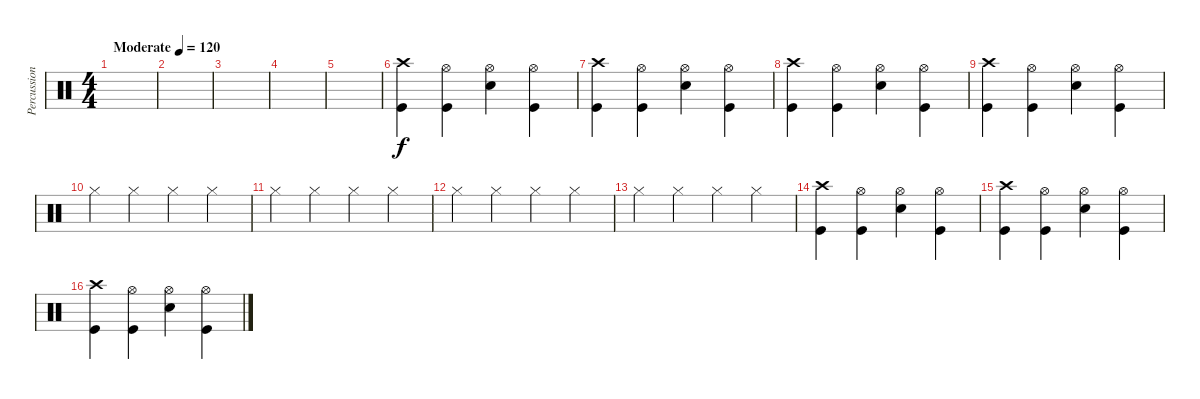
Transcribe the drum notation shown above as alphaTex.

\track ("Percussion" "Percussion") {instrument percussion}
\staff {score}
\articulation defaults
\ts (4 4)
\tempo (120 "Moderate")
\clef neutral
\ks c
|
|
|
|
|
("Crash high (hit)" "Kick (hit)").4 ("Hi-Hat (open)" "Kick (hit)").4 ("Hi-Hat (open)" "Snare (hit) 2").4 ("Hi-Hat (open)" "Kick (hit)").4 |
("Crash high (hit)" "Kick (hit)").4 ("Hi-Hat (open)" "Kick (hit)").4 ("Hi-Hat (open)" "Snare (hit) 2").4 ("Hi-Hat (open)" "Kick (hit)").4 |
("Crash high (hit)" "Kick (hit)").4 ("Hi-Hat (open)" "Kick (hit)").4 ("Hi-Hat (open)" "Snare (hit) 2").4 ("Hi-Hat (open)" "Kick (hit)").4 |
("Crash high (hit)" "Kick (hit)").4 ("Hi-Hat (open)" "Kick (hit)").4 ("Hi-Hat (open)" "Snare (hit) 2").4 ("Hi-Hat (open)" "Kick (hit)").4 |
"Hi-Hat (closed)".4 "Hi-Hat (closed)".4 "Hi-Hat (closed)".4 "Hi-Hat (closed)".4 |
"Hi-Hat (closed)".4 "Hi-Hat (closed)".4 "Hi-Hat (closed)".4 "Hi-Hat (closed)".4 |
"Hi-Hat (closed)".4 "Hi-Hat (closed)".4 "Hi-Hat (closed)".4 "Hi-Hat (closed)".4 |
"Hi-Hat (closed)".4 "Hi-Hat (closed)".4 "Hi-Hat (closed)".4 "Hi-Hat (closed)".4 |
("Crash high (hit)" "Kick (hit)").4 ("Hi-Hat (open)" "Kick (hit)").4 ("Hi-Hat (open)" "Snare (hit) 2").4 ("Hi-Hat (open)" "Kick (hit)").4 |
("Crash high (hit)" "Kick (hit)").4 ("Hi-Hat (open)" "Kick (hit)").4 ("Hi-Hat (open)" "Snare (hit) 2").4 ("Hi-Hat (open)" "Kick (hit)").4 |
("Crash high (hit)" "Kick (hit)").4 ("Hi-Hat (open)" "Kick (hit)").4 ("Hi-Hat (open)" "Snare (hit) 2").4 ("Hi-Hat (open)" "Kick (hit)").4
